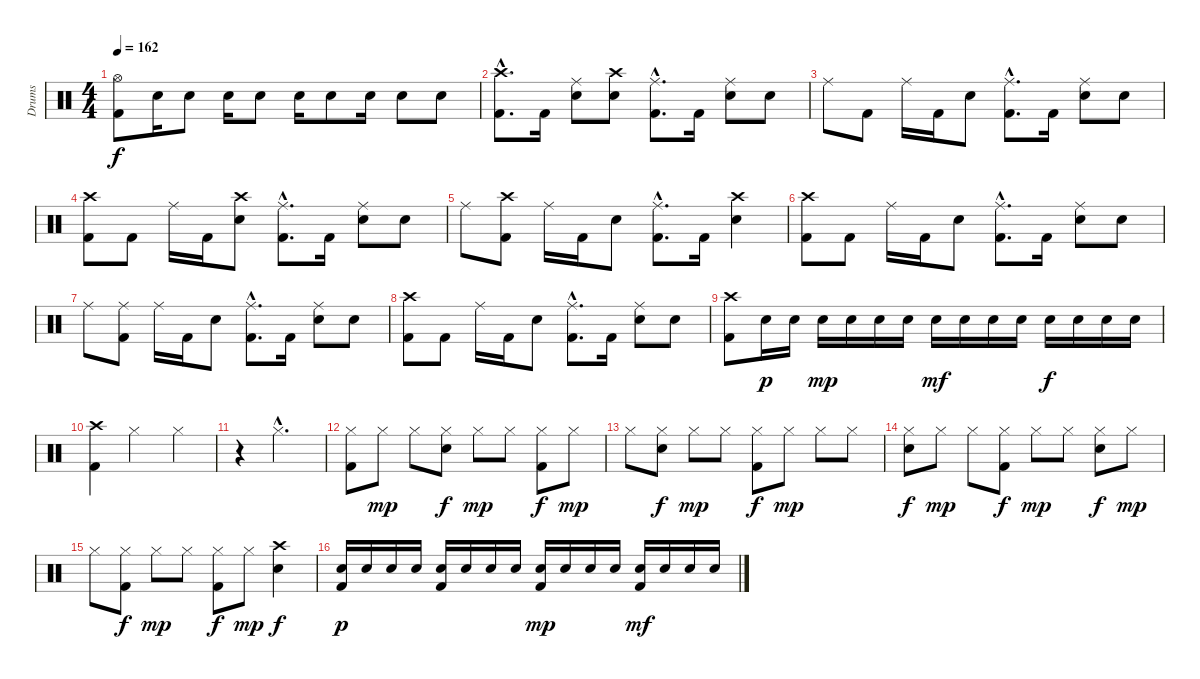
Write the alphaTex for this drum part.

\track ("Drums" "Drums") {instrument percussion}
\staff {score}
\articulation defaults
\ts (4 4)
\tempo 162
\clef neutral
\ks c
("Hi-Hat (open)" "Kick (hit) 2").8{dy f} "Electric Snare (hit)".16 "Electric Snare (hit)".8 "Electric Snare (hit)".16 "Electric Snare (hit)".8 "Electric Snare (hit)".16 "Electric Snare (hit)".8 "Electric Snare (hit)".16 "Electric Snare (hit)".8 "Electric Snare (hit)".8 |
("Crash high (hit)"{hac} "Kick (hit) 2"{hac}).8{d} "Kick (hit) 2".16 ("Ride (middle)" "Electric Snare (hit)").8 ("Crash high (hit)" "Electric Snare (hit)").8 ("Ride (middle)"{hac} "Kick (hit) 2"{hac}).8{d} "Kick (hit) 2".16 ("Ride (middle)" "Electric Snare (hit)").8 "Electric Snare (hit)".8 |
"Ride (middle)".8 "Kick (hit) 2".8 "Ride (middle)".16 "Kick (hit) 2".16 "Electric Snare (hit)".8 ("Ride (middle)"{hac} "Kick (hit) 2"{hac}).8{d} "Kick (hit) 2".16 ("Ride (middle)" "Electric Snare (hit)").8 "Electric Snare (hit)".8 |
("Crash high (hit)" "Kick (hit) 2").8 "Kick (hit) 2".8 "Ride (middle)".16 "Kick (hit) 2".16 ("Crash high (hit)" "Electric Snare (hit)").8 ("Ride (middle)"{hac} "Kick (hit) 2"{hac}).8{d} "Kick (hit) 2".16 ("Ride (middle)" "Electric Snare (hit)").8 "Electric Snare (hit)".8 |
"Ride (middle)".8 ("Crash high (hit)" "Kick (hit) 2").8 "Ride (middle)".16 "Kick (hit) 2".16 "Electric Snare (hit)".8 ("Ride (middle)"{hac} "Kick (hit) 2"{hac}).8{d} "Kick (hit) 2".16 ("Crash high (hit)" "Electric Snare (hit)").4 |
("Crash high (hit)" "Kick (hit) 2").8 "Kick (hit) 2".8 "Ride (middle)".16 "Kick (hit) 2".16 "Electric Snare (hit)".8 ("Ride (middle)"{hac} "Kick (hit) 2"{hac}).8{d} "Kick (hit) 2".16 ("Ride (middle)" "Electric Snare (hit)").8 "Electric Snare (hit)".8 |
"Ride (middle)".8 ("Ride (middle)" "Kick (hit) 2").8 "Ride (middle)".16 "Kick (hit) 2".16 "Electric Snare (hit)".8 ("Ride (middle)"{hac} "Kick (hit) 2"{hac}).8{d} "Kick (hit) 2".16 ("Ride (middle)" "Electric Snare (hit)").8 "Electric Snare (hit)".8 |
("Crash high (hit)" "Kick (hit) 2").8 "Kick (hit) 2".8 "Ride (middle)".16 "Kick (hit) 2".16 "Electric Snare (hit)".8 ("Ride (middle)"{hac} "Kick (hit) 2"{hac}).8{d} "Kick (hit) 2".16 ("Ride (middle)" "Electric Snare (hit)").8 "Electric Snare (hit)".8 |
("Crash high (hit)" "Kick (hit) 2").8 "Electric Snare (hit)".16{dy p} "Electric Snare (hit)".16 "Electric Snare (hit)".16{dy mp} "Electric Snare (hit)".16 "Electric Snare (hit)".16 "Electric Snare (hit)".16 "Electric Snare (hit)".16{dy mf} "Electric Snare (hit)".16 "Electric Snare (hit)".16 "Electric Snare (hit)".16 "Electric Snare (hit)".16{dy f} "Electric Snare (hit)".16 "Electric Snare (hit)".16 "Electric Snare (hit)".16 |
("Crash high (hit)" "Kick (hit) 2").4 "Hi-Hat (closed)".2 "Hi-Hat (closed)".4 |
r.4 "Hi-Hat (closed)"{hac}.2{d} |
("Hi-Hat (closed)" "Kick (hit) 2").8 "Hi-Hat (closed)".8{dy mp} "Hi-Hat (closed)".8 ("Hi-Hat (closed)" "Electric Snare (hit)").8{dy f} "Hi-Hat (closed)".8{dy mp} "Hi-Hat (closed)".8 ("Hi-Hat (closed)" "Kick (hit) 2").8{dy f} "Hi-Hat (closed)".8{dy mp} |
"Hi-Hat (closed)".8 ("Hi-Hat (closed)" "Electric Snare (hit)").8{dy f} "Hi-Hat (closed)".8{dy mp} "Hi-Hat (closed)".8 ("Hi-Hat (closed)" "Kick (hit) 2").8{dy f} "Hi-Hat (closed)".8{dy mp} "Hi-Hat (closed)".8 "Hi-Hat (closed)".8 |
("Hi-Hat (closed)" "Electric Snare (hit)").8{dy f} "Hi-Hat (closed)".8{dy mp} "Hi-Hat (closed)".8 ("Hi-Hat (closed)" "Kick (hit) 2").8{dy f} "Hi-Hat (closed)".8{dy mp} "Hi-Hat (closed)".8 ("Hi-Hat (closed)" "Electric Snare (hit)").8{dy f} "Hi-Hat (closed)".8{dy mp} |
"Hi-Hat (closed)".8 ("Hi-Hat (closed)" "Kick (hit) 2").8{dy f} "Hi-Hat (closed)".8{dy mp} "Hi-Hat (closed)".8 ("Hi-Hat (closed)" "Kick (hit) 2").8{dy f} "Hi-Hat (closed)".8{dy mp} ("Crash high (hit)" "Electric Snare (hit)").4{dy f} |
("Electric Snare (hit)" "Kick (hit) 2").16{dy p} "Electric Snare (hit)".16 "Electric Snare (hit)".16 "Electric Snare (hit)".16 ("Electric Snare (hit)" "Kick (hit) 2").16 "Electric Snare (hit)".16 "Electric Snare (hit)".16 "Electric Snare (hit)".16 ("Electric Snare (hit)" "Kick (hit) 2").16{dy mp} "Electric Snare (hit)".16 "Electric Snare (hit)".16 "Electric Snare (hit)".16 ("Electric Snare (hit)" "Kick (hit) 2").16{dy mf} "Electric Snare (hit)".16 "Electric Snare (hit)".16 "Electric Snare (hit)".16
